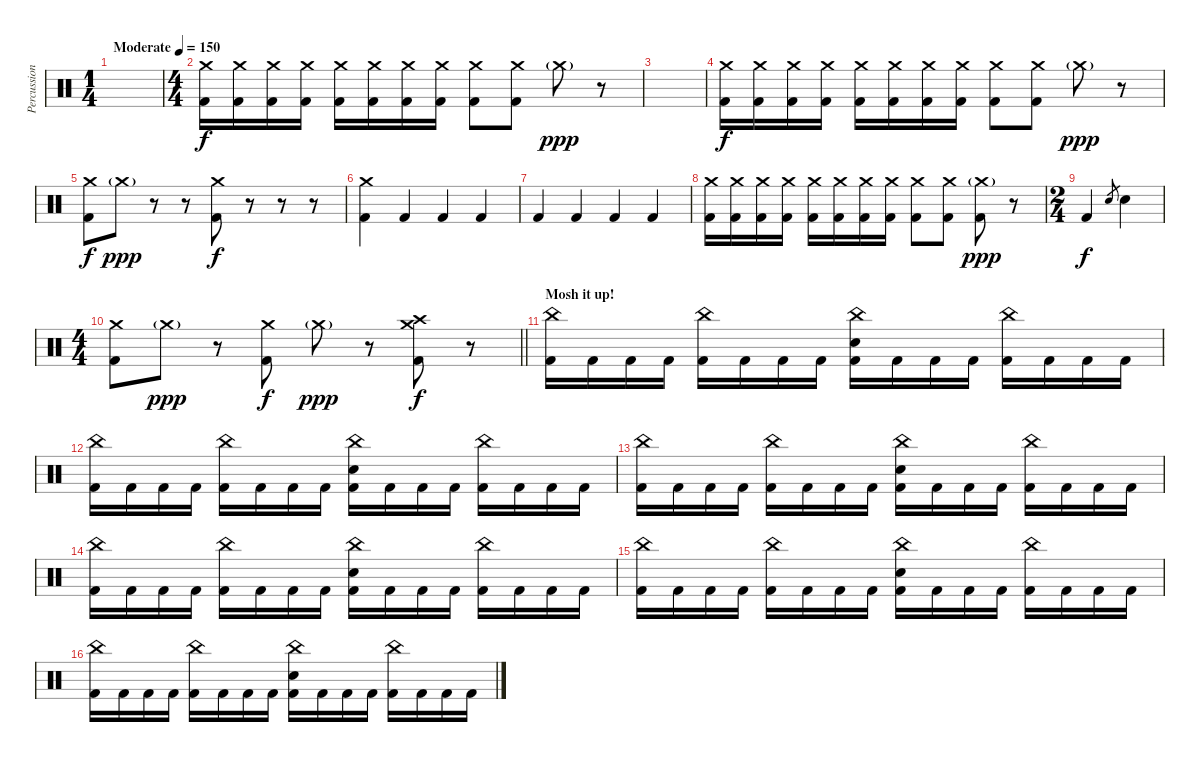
\track ("Percussion" "Percussion") {instrument percussion}
\staff {score}
\articulation defaults
\ts (1 4)
\tempo (150 "Moderate")
\clef neutral
\ks c
|
\ts (4 4)
("Crash medium (hit)" "Kick (hit) 2").16 ("Crash medium (hit)" "Kick (hit) 2").16 ("Crash medium (hit)" "Kick (hit) 2").16 ("Crash medium (hit)" "Kick (hit) 2").16 ("Crash medium (hit)" "Kick (hit) 2").16 ("Crash medium (hit)" "Kick (hit) 2").16 ("Crash medium (hit)" "Kick (hit) 2").16 ("Crash medium (hit)" "Kick (hit) 2").16 ("Crash medium (hit)" "Kick (hit) 2").8 ("Crash medium (hit)" "Kick (hit) 2").8 "Crash medium (hit)"{g}.8{dy ppp} r.8 |
|
("Crash medium (hit)" "Kick (hit) 2").16{dy f} ("Crash medium (hit)" "Kick (hit) 2").16 ("Crash medium (hit)" "Kick (hit) 2").16 ("Crash medium (hit)" "Kick (hit) 2").16 ("Crash medium (hit)" "Kick (hit) 2").16 ("Crash medium (hit)" "Kick (hit) 2").16 ("Crash medium (hit)" "Kick (hit) 2").16 ("Crash medium (hit)" "Kick (hit) 2").16 ("Crash medium (hit)" "Kick (hit) 2").8 ("Crash medium (hit)" "Kick (hit) 2").8 "Crash medium (hit)"{g}.8{dy ppp} r.8 |
("Crash medium (hit)" "Kick (hit) 2").8{dy f} "Crash medium (hit)"{g}.8{dy ppp} r.8 r.8 ("Crash medium (hit)" "Kick (hit) 2").8{dy f} r.8 r.8 r.8 |
("Crash medium (hit)" "Kick (hit) 2").4 "Kick (hit) 2".4 "Kick (hit) 2".4 "Kick (hit) 2".4 |
"Kick (hit) 2".4 "Kick (hit) 2".4 "Kick (hit) 2".4 "Kick (hit) 2".4 |
("Crash medium (hit)" "Kick (hit) 2").16 ("Crash medium (hit)" "Kick (hit) 2").16 ("Crash medium (hit)" "Kick (hit) 2").16 ("Crash medium (hit)" "Kick (hit) 2").16 ("Crash medium (hit)" "Kick (hit) 2").16 ("Crash medium (hit)" "Kick (hit) 2").16 ("Crash medium (hit)" "Kick (hit) 2").16 ("Crash medium (hit)" "Kick (hit) 2").16 ("Crash medium (hit)" "Kick (hit) 2").8 ("Crash medium (hit)" "Kick (hit) 2").8 ("Crash medium (hit)"{g} "Kick (hit) 2").8{dy ppp} r.8 |
\ts (2 4)
"Kick (hit) 2".4{dy f} "Snare (hit) 2".8{gr} "Snare (hit) 2".4 |
\ts (4 4)
\barLineRight lightlight
("Crash medium (hit)" "Kick (hit) 2").8 "Crash medium (hit)"{g}.8{dy ppp} r.8 ("Crash medium (hit)" "Kick (hit) 2").8{dy f} "Crash medium (hit)"{g}.8{dy ppp} r.8 ("Crash medium (hit)" "Crash high (hit)" "Kick (hit) 2").8{dy f} r.8 |
\section ("" "Mosh it up!")
("China (hit)" "Kick (hit) 2").16 "Kick (hit) 2".16 "Kick (hit) 2".16 "Kick (hit) 2".16 ("China (hit)" "Kick (hit) 2").16 "Kick (hit) 2".16 "Kick (hit) 2".16 "Kick (hit) 2".16 ("China (hit)" "Snare (hit) 2" "Kick (hit) 2").16 "Kick (hit) 2".16 "Kick (hit) 2".16 "Kick (hit) 2".16 ("China (hit)" "Kick (hit) 2").16 "Kick (hit) 2".16 "Kick (hit) 2".16 "Kick (hit) 2".16 |
("China (hit)" "Kick (hit) 2").16 "Kick (hit) 2".16 "Kick (hit) 2".16 "Kick (hit) 2".16 ("China (hit)" "Kick (hit) 2").16 "Kick (hit) 2".16 "Kick (hit) 2".16 "Kick (hit) 2".16 ("China (hit)" "Snare (hit) 2" "Kick (hit) 2").16 "Kick (hit) 2".16 "Kick (hit) 2".16 "Kick (hit) 2".16 ("China (hit)" "Kick (hit) 2").16 "Kick (hit) 2".16 "Kick (hit) 2".16 "Kick (hit) 2".16 |
("China (hit)" "Kick (hit) 2").16 "Kick (hit) 2".16 "Kick (hit) 2".16 "Kick (hit) 2".16 ("China (hit)" "Kick (hit) 2").16 "Kick (hit) 2".16 "Kick (hit) 2".16 "Kick (hit) 2".16 ("China (hit)" "Snare (hit) 2" "Kick (hit) 2").16 "Kick (hit) 2".16 "Kick (hit) 2".16 "Kick (hit) 2".16 ("China (hit)" "Kick (hit) 2").16 "Kick (hit) 2".16 "Kick (hit) 2".16 "Kick (hit) 2".16 |
("China (hit)" "Kick (hit) 2").16 "Kick (hit) 2".16 "Kick (hit) 2".16 "Kick (hit) 2".16 ("China (hit)" "Kick (hit) 2").16 "Kick (hit) 2".16 "Kick (hit) 2".16 "Kick (hit) 2".16 ("China (hit)" "Snare (hit) 2" "Kick (hit) 2").16 "Kick (hit) 2".16 "Kick (hit) 2".16 "Kick (hit) 2".16 ("China (hit)" "Kick (hit) 2").16 "Kick (hit) 2".16 "Kick (hit) 2".16 "Kick (hit) 2".16 |
("China (hit)" "Kick (hit) 2").16 "Kick (hit) 2".16 "Kick (hit) 2".16 "Kick (hit) 2".16 ("China (hit)" "Kick (hit) 2").16 "Kick (hit) 2".16 "Kick (hit) 2".16 "Kick (hit) 2".16 ("China (hit)" "Snare (hit) 2" "Kick (hit) 2").16 "Kick (hit) 2".16 "Kick (hit) 2".16 "Kick (hit) 2".16 ("China (hit)" "Kick (hit) 2").16 "Kick (hit) 2".16 "Kick (hit) 2".16 "Kick (hit) 2".16 |
("China (hit)" "Kick (hit) 2").16 "Kick (hit) 2".16 "Kick (hit) 2".16 "Kick (hit) 2".16 ("China (hit)" "Kick (hit) 2").16 "Kick (hit) 2".16 "Kick (hit) 2".16 "Kick (hit) 2".16 ("China (hit)" "Snare (hit) 2" "Kick (hit) 2").16 "Kick (hit) 2".16 "Kick (hit) 2".16 "Kick (hit) 2".16 ("China (hit)" "Kick (hit) 2").16 "Kick (hit) 2".16 "Kick (hit) 2".16 "Kick (hit) 2".16
